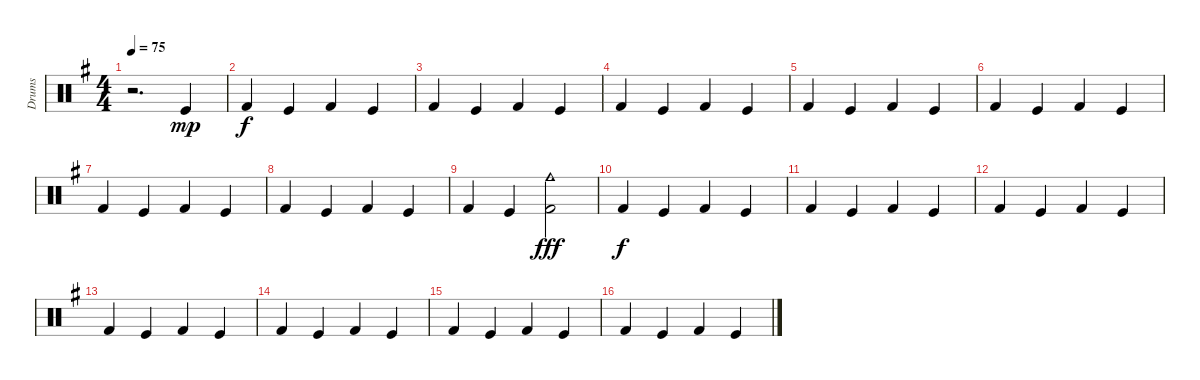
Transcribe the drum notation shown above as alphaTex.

\track ("Drums " "Drums ") {instrument percussion}
\staff {score}
\articulation defaults
\ts (4 4)
\tempo 75
\clef neutral
\ks eminor
r.2{d dy mp} "Kick (hit)".4 |
"Kick (hit) 2".4{dy f} "Kick (hit)".4 "Kick (hit) 2".4 "Kick (hit)".4 |
"Kick (hit) 2".4 "Kick (hit)".4 "Kick (hit) 2".4 "Kick (hit)".4 |
"Kick (hit) 2".4 "Kick (hit)".4 "Kick (hit) 2".4 "Kick (hit)".4 |
"Kick (hit) 2".4 "Kick (hit)".4 "Kick (hit) 2".4 "Kick (hit)".4 |
"Kick (hit) 2".4 "Kick (hit)".4 "Kick (hit) 2".4 "Kick (hit)".4 |
"Kick (hit) 2".4 "Kick (hit)".4 "Kick (hit) 2".4 "Kick (hit)".4 |
"Kick (hit) 2".4 "Kick (hit)".4 "Kick (hit) 2".4 "Kick (hit)".4 |
"Kick (hit) 2".4 "Kick (hit)".4 ("Cowbell medium (hit)" "Kick (hit) 2").2{dy fff} |
"Kick (hit) 2".4{dy f} "Kick (hit)".4 "Kick (hit) 2".4 "Kick (hit)".4 |
"Kick (hit) 2".4 "Kick (hit)".4 "Kick (hit) 2".4 "Kick (hit)".4 |
"Kick (hit) 2".4 "Kick (hit)".4 "Kick (hit) 2".4 "Kick (hit)".4 |
"Kick (hit) 2".4 "Kick (hit)".4 "Kick (hit) 2".4 "Kick (hit)".4 |
"Kick (hit) 2".4 "Kick (hit)".4 "Kick (hit) 2".4 "Kick (hit)".4 |
"Kick (hit) 2".4 "Kick (hit)".4 "Kick (hit) 2".4 "Kick (hit)".4 |
"Kick (hit) 2".4 "Kick (hit)".4 "Kick (hit) 2".4 "Kick (hit)".4
